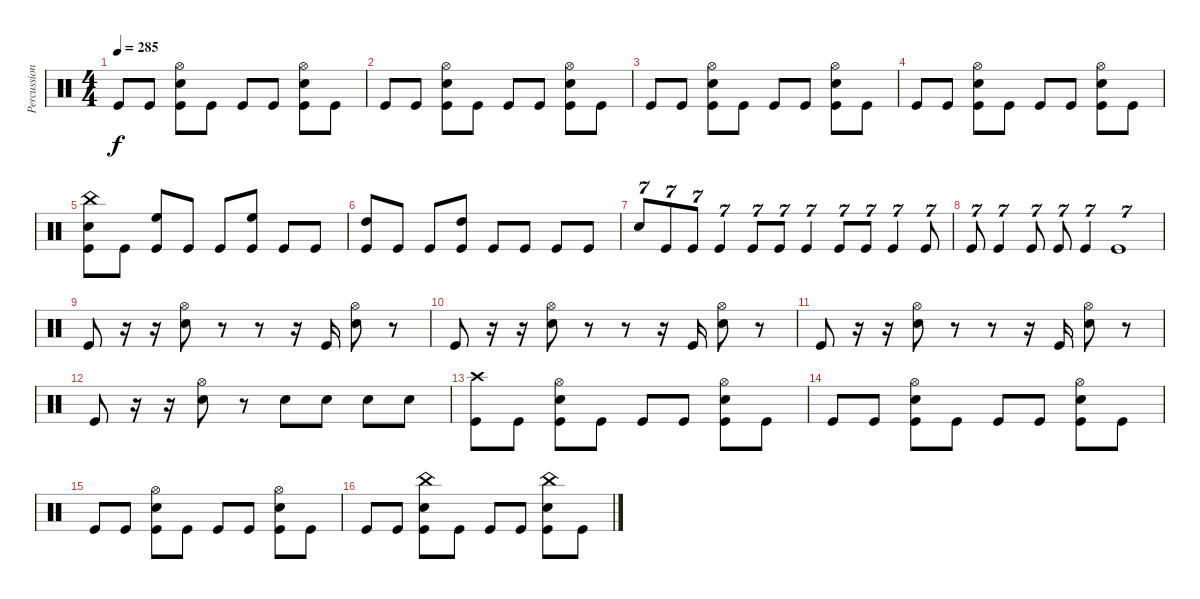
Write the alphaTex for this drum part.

\track ("Percussion" "Percussion") {instrument percussion}
\staff {score}
\articulation defaults
\ts (4 4)
\tempo 285
\clef neutral
\ks c "Kick (hit)".8{dy f} "Kick (hit)".8
("Snare (hit) 2" "Hi-Hat (open)" "Kick (hit)").8 "Kick (hit)".8 "Kick (hit)".8 "Kick (hit)".8 ("Snare (hit) 2" "Hi-Hat (open)" "Kick (hit)").8 "Kick (hit)".8 |
"Kick (hit)".8 "Kick (hit)".8 ("Snare (hit) 2" "Hi-Hat (open)" "Kick (hit)").8 "Kick (hit)".8 "Kick (hit)".8 "Kick (hit)".8 ("Snare (hit) 2" "Hi-Hat (open)" "Kick (hit)").8 "Kick (hit)".8 |
"Kick (hit)".8 "Kick (hit)".8 ("Snare (hit) 2" "Hi-Hat (open)" "Kick (hit)").8 "Kick (hit)".8 "Kick (hit)".8 "Kick (hit)".8 ("Snare (hit) 2" "Hi-Hat (open)" "Kick (hit)").8 "Kick (hit)".8 |
"Kick (hit)".8 "Kick (hit)".8 ("Snare (hit) 2" "Hi-Hat (open)" "Kick (hit)").8 "Kick (hit)".8 "Kick (hit)".8 "Kick (hit)".8 ("Snare (hit) 2" "Hi-Hat (open)" "Kick (hit)").8 "Kick (hit)".8 |
("Snare (hit) 2" "China (hit)" "Kick (hit)").8 "Kick (hit)".8 ("High Floor Tom (hit)" "Kick (hit)").8 "Kick (hit)".8 "Kick (hit)".8 ("High Floor Tom (hit)" "Kick (hit)").8 "Kick (hit)".8 "Kick (hit)".8 |
("High Tom (hit)" "Kick (hit)").8 "Kick (hit)".8 "Kick (hit)".8 ("High Tom (hit)" "Kick (hit)").8 "Kick (hit)".8 "Kick (hit)".8 "Kick (hit)".8 "Kick (hit)".8 |
"Snare (hit) 2".8{tu (7 4)} "Kick (hit)".8{tu (7 4)} "Kick (hit)".8{tu (7 4)} "Kick (hit)".4{tu (7 4)} "Kick (hit)".8{tu (7 4)} "Kick (hit)".8{tu (7 4)} "Kick (hit)".4{tu (7 4)} "Kick (hit)".8{tu (7 4)} "Kick (hit)".8{tu (7 4)} "Kick (hit)".4{tu (7 4)} "Kick (hit)".8{tu (7 4)} |
"Kick (hit)".8{tu (7 4)} "Kick (hit)".4{tu (7 4)} "Kick (hit)".8{tu (7 4)} "Kick (hit)".8{tu (7 4)} "Kick (hit)".4{tu (7 4)} "Kick (hit)".1{tu (7 4)} |
"Kick (hit)".8 r.16 r.16 ("Snare (hit) 2" "Hi-Hat (open)").8 r.8 r.8 r.16 "Kick (hit)".16 ("Snare (hit) 2" "Hi-Hat (open)").8 r.8 |
"Kick (hit)".8 r.16 r.16 ("Snare (hit) 2" "Hi-Hat (open)").8 r.8 r.8 r.16 "Kick (hit)".16 ("Snare (hit) 2" "Hi-Hat (open)").8 r.8 |
"Kick (hit)".8 r.16 r.16 ("Snare (hit) 2" "Hi-Hat (open)").8 r.8 r.8 r.16 "Kick (hit)".16 ("Snare (hit) 2" "Hi-Hat (open)").8 r.8 |
"Kick (hit)".8 r.16 r.16 ("Snare (hit) 2" "Hi-Hat (open)").8 r.8 "Snare (hit) 2".8 "Snare (hit) 2".8 "Snare (hit) 2".8 "Snare (hit) 2".8 |
("Crash high (hit)" "Kick (hit)").8 "Kick (hit)".8 ("Snare (hit) 2" "Hi-Hat (open)" "Kick (hit)").8 "Kick (hit)".8 "Kick (hit)".8 "Kick (hit)".8 ("Snare (hit) 2" "Hi-Hat (open)" "Kick (hit)").8 "Kick (hit)".8 |
"Kick (hit)".8 "Kick (hit)".8 ("Snare (hit) 2" "Hi-Hat (open)" "Kick (hit)").8 "Kick (hit)".8 "Kick (hit)".8 "Kick (hit)".8 ("Snare (hit) 2" "Hi-Hat (open)" "Kick (hit)").8 "Kick (hit)".8 |
"Kick (hit)".8 "Kick (hit)".8 ("Snare (hit) 2" "Hi-Hat (open)" "Kick (hit)").8 "Kick (hit)".8 "Kick (hit)".8 "Kick (hit)".8 ("Snare (hit) 2" "Hi-Hat (open)" "Kick (hit)").8 "Kick (hit)".8 |
"Kick (hit)".8 "Kick (hit)".8 ("Snare (hit) 2" "China (hit)" "Kick (hit)").8 "Kick (hit)".8 "Kick (hit)".8 "Kick (hit)".8 ("Snare (hit) 2" "China (hit)" "Kick (hit)").8 "Kick (hit)".8
